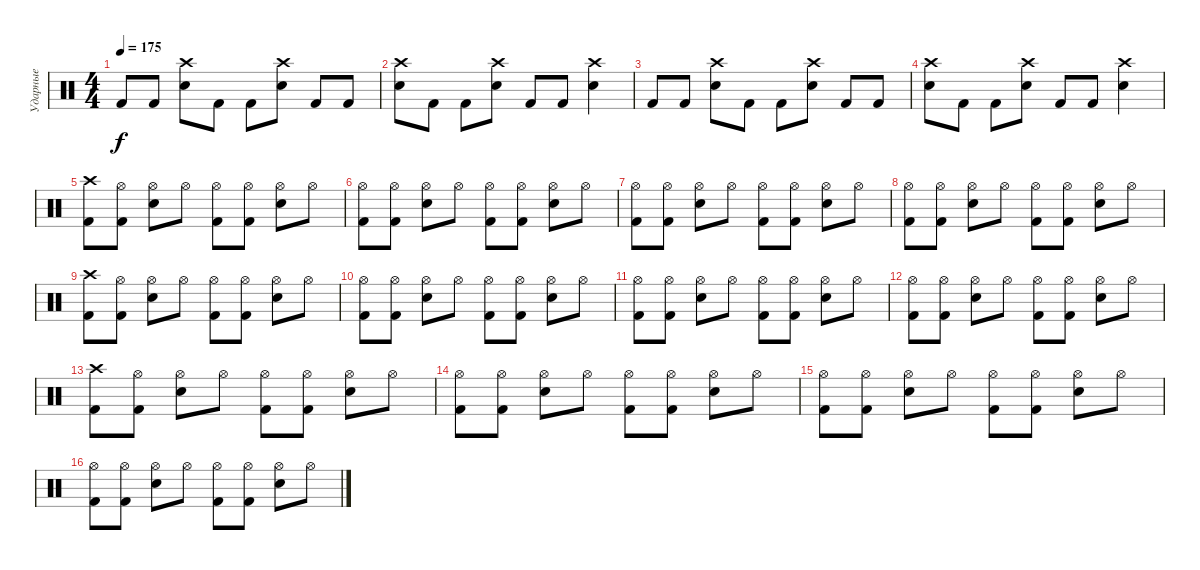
\track ("Ударные" "Ударные") {instrument percussion}
\staff {score}
\articulation defaults
\ts (4 4)
\tempo 175
\clef neutral
\ks c "Kick (hit) 2".8{dy f} "Kick (hit) 2".8
("Crash high (hit)" "Electric Snare (hit)").8 "Kick (hit) 2".8 "Kick (hit) 2".8 ("Crash high (hit)" "Electric Snare (hit)").8 "Kick (hit) 2".8 "Kick (hit) 2".8 |
("Crash high (hit)" "Electric Snare (hit)").8 "Kick (hit) 2".8 "Kick (hit) 2".8 ("Crash high (hit)" "Electric Snare (hit)").8 "Kick (hit) 2".8 "Kick (hit) 2".8 ("Crash high (hit)" "Electric Snare (hit)").4 |
"Kick (hit) 2".8 "Kick (hit) 2".8 ("Crash high (hit)" "Electric Snare (hit)").8 "Kick (hit) 2".8 "Kick (hit) 2".8 ("Crash high (hit)" "Electric Snare (hit)").8 "Kick (hit) 2".8 "Kick (hit) 2".8 |
("Crash high (hit)" "Electric Snare (hit)").8 "Kick (hit) 2".8 "Kick (hit) 2".8 ("Crash high (hit)" "Electric Snare (hit)").8 "Kick (hit) 2".8 "Kick (hit) 2".8 ("Crash high (hit)" "Electric Snare (hit)").4 |
("Crash high (hit)" "Kick (hit) 2").8 ("Hi-Hat (open)" "Kick (hit) 2").8 ("Hi-Hat (open)" "Electric Snare (hit)").8 "Hi-Hat (open)".8 ("Hi-Hat (open)" "Kick (hit) 2").8 ("Hi-Hat (open)" "Kick (hit) 2").8 ("Hi-Hat (open)" "Electric Snare (hit)").8 "Hi-Hat (open)".8 |
("Hi-Hat (open)" "Kick (hit) 2").8 ("Hi-Hat (open)" "Kick (hit) 2").8 ("Hi-Hat (open)" "Electric Snare (hit)").8 "Hi-Hat (open)".8 ("Hi-Hat (open)" "Kick (hit) 2").8 ("Hi-Hat (open)" "Kick (hit) 2").8 ("Hi-Hat (open)" "Electric Snare (hit)").8 "Hi-Hat (open)".8 |
("Hi-Hat (open)" "Kick (hit) 2").8 ("Hi-Hat (open)" "Kick (hit) 2").8 ("Hi-Hat (open)" "Electric Snare (hit)").8 "Hi-Hat (open)".8 ("Hi-Hat (open)" "Kick (hit) 2").8 ("Hi-Hat (open)" "Kick (hit) 2").8 ("Hi-Hat (open)" "Electric Snare (hit)").8 "Hi-Hat (open)".8 |
("Hi-Hat (open)" "Kick (hit) 2").8 ("Hi-Hat (open)" "Kick (hit) 2").8 ("Hi-Hat (open)" "Electric Snare (hit)").8 "Hi-Hat (open)".8 ("Hi-Hat (open)" "Kick (hit) 2").8 ("Hi-Hat (open)" "Kick (hit) 2").8 ("Hi-Hat (open)" "Electric Snare (hit)").8 "Hi-Hat (open)".8 |
("Crash high (hit)" "Kick (hit) 2").8 ("Hi-Hat (open)" "Kick (hit) 2").8 ("Hi-Hat (open)" "Electric Snare (hit)").8 "Hi-Hat (open)".8 ("Hi-Hat (open)" "Kick (hit) 2").8 ("Hi-Hat (open)" "Kick (hit) 2").8 ("Hi-Hat (open)" "Electric Snare (hit)").8 "Hi-Hat (open)".8 |
("Hi-Hat (open)" "Kick (hit) 2").8 ("Hi-Hat (open)" "Kick (hit) 2").8 ("Hi-Hat (open)" "Electric Snare (hit)").8 "Hi-Hat (open)".8 ("Hi-Hat (open)" "Kick (hit) 2").8 ("Hi-Hat (open)" "Kick (hit) 2").8 ("Hi-Hat (open)" "Electric Snare (hit)").8 "Hi-Hat (open)".8 |
("Hi-Hat (open)" "Kick (hit) 2").8 ("Hi-Hat (open)" "Kick (hit) 2").8 ("Hi-Hat (open)" "Electric Snare (hit)").8 "Hi-Hat (open)".8 ("Hi-Hat (open)" "Kick (hit) 2").8 ("Hi-Hat (open)" "Kick (hit) 2").8 ("Hi-Hat (open)" "Electric Snare (hit)").8 "Hi-Hat (open)".8 |
("Hi-Hat (open)" "Kick (hit) 2").8 ("Hi-Hat (open)" "Kick (hit) 2").8 ("Hi-Hat (open)" "Electric Snare (hit)").8 "Hi-Hat (open)".8 ("Hi-Hat (open)" "Kick (hit) 2").8 ("Hi-Hat (open)" "Kick (hit) 2").8 ("Hi-Hat (open)" "Electric Snare (hit)").8 "Hi-Hat (open)".8 |
("Crash high (hit)" "Kick (hit) 2").8 ("Hi-Hat (open)" "Kick (hit) 2").8 ("Hi-Hat (open)" "Electric Snare (hit)").8 "Hi-Hat (open)".8 ("Hi-Hat (open)" "Kick (hit) 2").8 ("Hi-Hat (open)" "Kick (hit) 2").8 ("Hi-Hat (open)" "Electric Snare (hit)").8 "Hi-Hat (open)".8 |
("Hi-Hat (open)" "Kick (hit) 2").8 ("Hi-Hat (open)" "Kick (hit) 2").8 ("Hi-Hat (open)" "Electric Snare (hit)").8 "Hi-Hat (open)".8 ("Hi-Hat (open)" "Kick (hit) 2").8 ("Hi-Hat (open)" "Kick (hit) 2").8 ("Hi-Hat (open)" "Electric Snare (hit)").8 "Hi-Hat (open)".8 |
("Hi-Hat (open)" "Kick (hit) 2").8 ("Hi-Hat (open)" "Kick (hit) 2").8 ("Hi-Hat (open)" "Electric Snare (hit)").8 "Hi-Hat (open)".8 ("Hi-Hat (open)" "Kick (hit) 2").8 ("Hi-Hat (open)" "Kick (hit) 2").8 ("Hi-Hat (open)" "Electric Snare (hit)").8 "Hi-Hat (open)".8 |
("Hi-Hat (open)" "Kick (hit) 2").8 ("Hi-Hat (open)" "Kick (hit) 2").8 ("Hi-Hat (open)" "Electric Snare (hit)").8 "Hi-Hat (open)".8 ("Hi-Hat (open)" "Kick (hit) 2").8 ("Hi-Hat (open)" "Kick (hit) 2").8 ("Hi-Hat (open)" "Electric Snare (hit)").8 "Hi-Hat (open)".8
